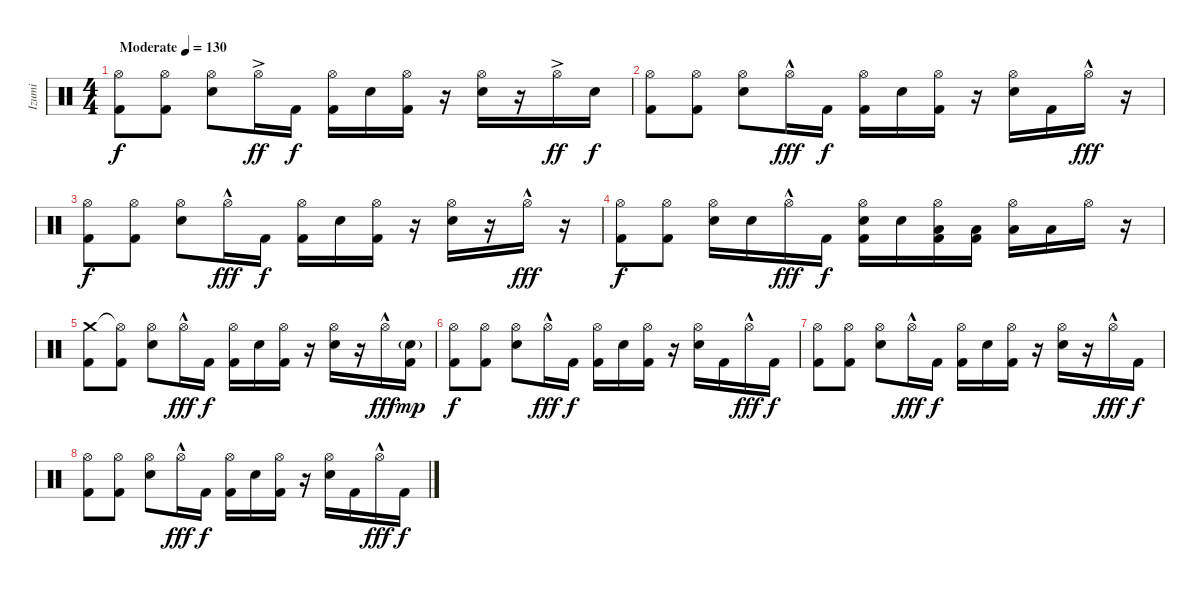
\track ("Izumi" "Izumi") {instrument percussion}
\staff {score}
\articulation defaults
\ts (4 4)
\tempo (130 "Moderate")
\clef neutral
\ks c
("Hi-Hat (open)" "Kick (hit) 2").8{dy f volume 0} ("Hi-Hat (open)" "Kick (hit) 2").8{volume 13} ("Hi-Hat (open)" "Electric Snare (hit)").8 "Hi-Hat (open)"{ac}.16{dy ff} "Kick (hit) 2".16{dy f} ("Hi-Hat (open)" "Kick (hit) 2").16 "Electric Snare (hit)".16 ("Hi-Hat (open)" "Kick (hit) 2").16 r.16 ("Hi-Hat (open)" "Electric Snare (hit)").16 r.16 "Hi-Hat (open)"{ac}.16{dy ff} "Electric Snare (hit)".16{dy f} |
("Hi-Hat (open)" "Kick (hit) 2").8 ("Hi-Hat (open)" "Kick (hit) 2").8 ("Hi-Hat (open)" "Electric Snare (hit)").8 "Hi-Hat (open)"{hac}.16{dy fff} "Kick (hit) 2".16{dy f} ("Hi-Hat (open)" "Kick (hit) 2").16 "Electric Snare (hit)".16 ("Hi-Hat (open)" "Kick (hit) 2").16 r.16 ("Hi-Hat (open)" "Electric Snare (hit)").16 "Kick (hit) 2".16 "Hi-Hat (open)"{hac}.16{dy fff} r.16 |
("Hi-Hat (open)" "Kick (hit) 2").8{dy f} ("Hi-Hat (open)" "Kick (hit) 2").8 ("Hi-Hat (open)" "Electric Snare (hit)").8 "Hi-Hat (open)"{hac}.16{dy fff} "Kick (hit) 2".16{dy f} ("Hi-Hat (open)" "Kick (hit) 2").16 "Electric Snare (hit)".16 ("Hi-Hat (open)" "Kick (hit) 2").16 r.16 ("Hi-Hat (open)" "Electric Snare (hit)").16 r.16 "Hi-Hat (open)"{hac}.16{dy fff} r.16 |
("Hi-Hat (open)" "Kick (hit) 2").8{dy f} ("Hi-Hat (open)" "Kick (hit) 2").8 ("Hi-Hat (open)" "Electric Snare (hit)").16 "Electric Snare (hit)".16 "Hi-Hat (open)"{hac}.16{dy fff} "Kick (hit) 2".16{dy f} ("Hi-Hat (open)" "Electric Snare (hit)" "Kick (hit) 2").16 "Electric Snare (hit)".16 ("Hi-Hat (open)" "Low Tom (hit)" "Kick (hit) 2").16 ("Low Tom (hit)" "Kick (hit) 2").16 ("Hi-Hat (open)" "Low Floor Tom (hit)").16 "Low Floor Tom (hit)".16 "Hi-Hat (open)".16 r.16 |
("Crash medium (hit)" "Kick (hit) 2").8 ("Hi-Hat (open)"{t} "Kick (hit) 2").8 ("Hi-Hat (open)" "Electric Snare (hit)").8 "Hi-Hat (open)"{hac}.16{dy fff} "Kick (hit) 2".16{dy f} ("Hi-Hat (open)" "Kick (hit) 2").16 "Electric Snare (hit)".16 ("Hi-Hat (open)" "Kick (hit) 2").16 r.16 ("Hi-Hat (open)" "Electric Snare (hit)").16 r.16 "Hi-Hat (open)"{hac}.16{dy fff} ("Electric Snare (hit)"{g} "Kick (hit) 2").16{dy mp} |
("Hi-Hat (open)" "Kick (hit) 2").8{dy f} ("Hi-Hat (open)" "Kick (hit) 2").8 ("Hi-Hat (open)" "Electric Snare (hit)").8 "Hi-Hat (open)"{hac}.16{dy fff} "Kick (hit) 2".16{dy f} ("Hi-Hat (open)" "Kick (hit) 2").16 "Electric Snare (hit)".16 ("Hi-Hat (open)" "Kick (hit) 2").16 r.16 ("Hi-Hat (open)" "Electric Snare (hit)").16 "Kick (hit) 2".16 "Hi-Hat (open)"{hac}.16{dy fff} "Kick (hit) 2".16{dy f} |
("Hi-Hat (open)" "Kick (hit) 2").8 ("Hi-Hat (open)" "Kick (hit) 2").8 ("Hi-Hat (open)" "Electric Snare (hit)").8 "Hi-Hat (open)"{hac}.16{dy fff} "Kick (hit) 2".16{dy f} ("Hi-Hat (open)" "Kick (hit) 2").16 "Electric Snare (hit)".16 ("Hi-Hat (open)" "Kick (hit) 2").16 r.16 ("Hi-Hat (open)" "Electric Snare (hit)").16 r.16 "Hi-Hat (open)"{hac}.16{dy fff} "Kick (hit) 2".16{dy f} |
("Hi-Hat (open)" "Kick (hit) 2").8 ("Hi-Hat (open)" "Kick (hit) 2").8 ("Hi-Hat (open)" "Electric Snare (hit)").8 "Hi-Hat (open)"{hac}.16{dy fff} "Kick (hit) 2".16{dy f} ("Hi-Hat (open)" "Kick (hit) 2").16 "Electric Snare (hit)".16 ("Hi-Hat (open)" "Kick (hit) 2").16 r.16 ("Hi-Hat (open)" "Electric Snare (hit)").16 "Kick (hit) 2".16 "Hi-Hat (open)"{hac}.16{dy fff} "Kick (hit) 2".16{dy f}
